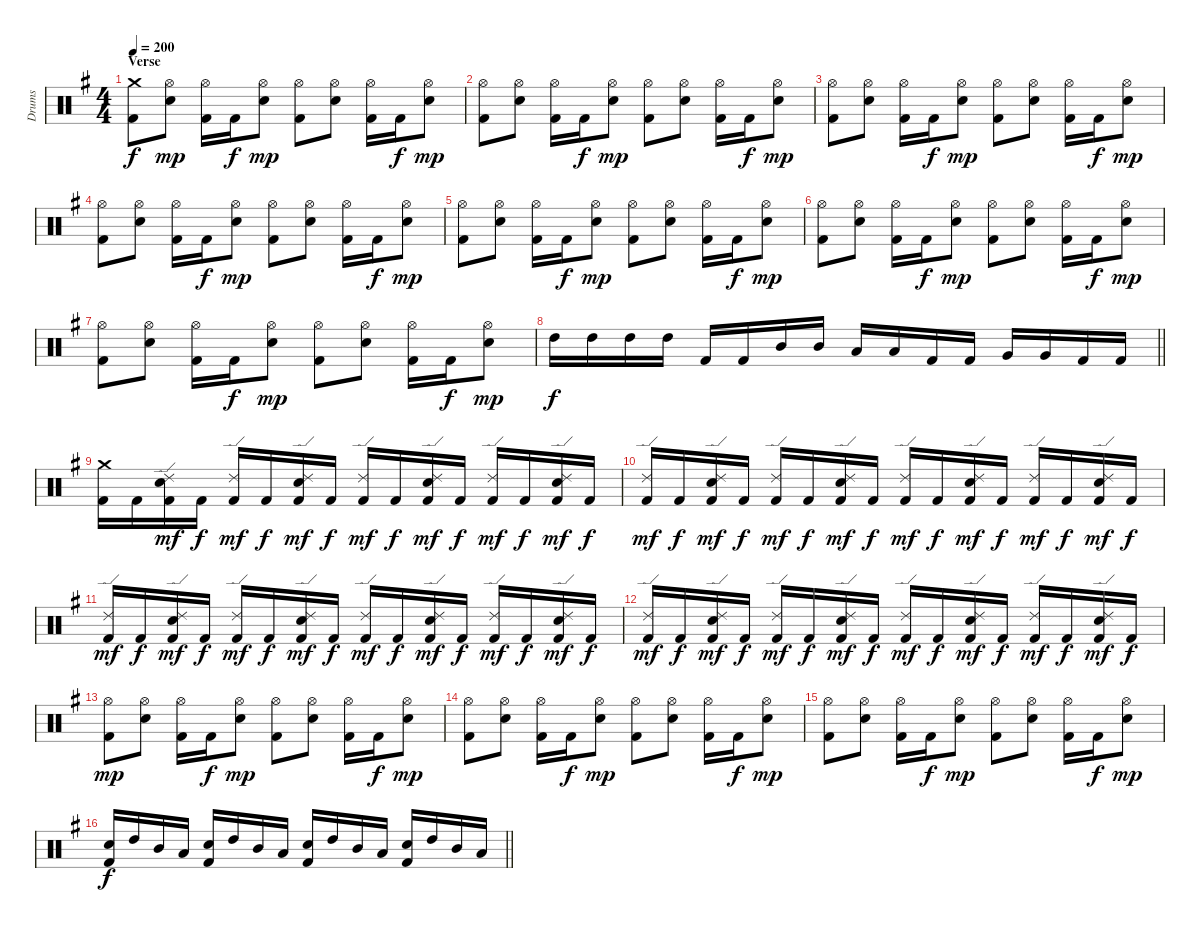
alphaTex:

\track ("Drums" "Drums") {instrument percussion}
\staff {score}
\articulation defaults
\ts (4 4)
\section ("" "Verse")
\tempo 200
\clef neutral
\ks g
("Crash medium (hit)" "Kick (hit) 2").8{dy f} ("Hi-Hat (open)" "Snare (hit) 2").8{dy mp} ("Hi-Hat (open)" "Kick (hit) 2").16 "Kick (hit) 2".16{dy f} ("Hi-Hat (open)" "Snare (hit) 2").8{dy mp} ("Hi-Hat (open)" "Kick (hit) 2").8 ("Hi-Hat (open)" "Snare (hit) 2").8 ("Hi-Hat (open)" "Kick (hit) 2").16 "Kick (hit) 2".16{dy f} ("Hi-Hat (open)" "Snare (hit) 2").8{dy mp} |
("Hi-Hat (open)" "Kick (hit) 2").8 ("Hi-Hat (open)" "Snare (hit) 2").8 ("Hi-Hat (open)" "Kick (hit) 2").16 "Kick (hit) 2".16{dy f} ("Hi-Hat (open)" "Snare (hit) 2").8{dy mp} ("Hi-Hat (open)" "Kick (hit) 2").8 ("Hi-Hat (open)" "Snare (hit) 2").8 ("Hi-Hat (open)" "Kick (hit) 2").16 "Kick (hit) 2".16{dy f} ("Hi-Hat (open)" "Snare (hit) 2").8{dy mp} |
("Hi-Hat (open)" "Kick (hit) 2").8 ("Hi-Hat (open)" "Snare (hit) 2").8 ("Hi-Hat (open)" "Kick (hit) 2").16 "Kick (hit) 2".16{dy f} ("Hi-Hat (open)" "Snare (hit) 2").8{dy mp} ("Hi-Hat (open)" "Kick (hit) 2").8 ("Hi-Hat (open)" "Snare (hit) 2").8 ("Hi-Hat (open)" "Kick (hit) 2").16 "Kick (hit) 2".16{dy f} ("Hi-Hat (open)" "Snare (hit) 2").8{dy mp} |
("Hi-Hat (open)" "Kick (hit) 2").8 ("Hi-Hat (open)" "Snare (hit) 2").8 ("Hi-Hat (open)" "Kick (hit) 2").16 "Kick (hit) 2".16{dy f} ("Hi-Hat (open)" "Snare (hit) 2").8{dy mp} ("Hi-Hat (open)" "Kick (hit) 2").8 ("Hi-Hat (open)" "Snare (hit) 2").8 ("Hi-Hat (open)" "Kick (hit) 2").16 "Kick (hit) 2".16{dy f} ("Hi-Hat (open)" "Snare (hit) 2").8{dy mp} |
("Hi-Hat (open)" "Kick (hit) 2").8 ("Hi-Hat (open)" "Snare (hit) 2").8 ("Hi-Hat (open)" "Kick (hit) 2").16 "Kick (hit) 2".16{dy f} ("Hi-Hat (open)" "Snare (hit) 2").8{dy mp} ("Hi-Hat (open)" "Kick (hit) 2").8 ("Hi-Hat (open)" "Snare (hit) 2").8 ("Hi-Hat (open)" "Kick (hit) 2").16 "Kick (hit) 2".16{dy f} ("Hi-Hat (open)" "Snare (hit) 2").8{dy mp} |
("Hi-Hat (open)" "Kick (hit) 2").8 ("Hi-Hat (open)" "Snare (hit) 2").8 ("Hi-Hat (open)" "Kick (hit) 2").16 "Kick (hit) 2".16{dy f} ("Hi-Hat (open)" "Snare (hit) 2").8{dy mp} ("Hi-Hat (open)" "Kick (hit) 2").8 ("Hi-Hat (open)" "Snare (hit) 2").8 ("Hi-Hat (open)" "Kick (hit) 2").16 "Kick (hit) 2".16{dy f} ("Hi-Hat (open)" "Snare (hit) 2").8{dy mp} |
("Hi-Hat (open)" "Kick (hit) 2").8 ("Hi-Hat (open)" "Snare (hit) 2").8 ("Hi-Hat (open)" "Kick (hit) 2").16 "Kick (hit) 2".16{dy f} ("Hi-Hat (open)" "Snare (hit) 2").8{dy mp} ("Hi-Hat (open)" "Kick (hit) 2").8 ("Hi-Hat (open)" "Snare (hit) 2").8 ("Hi-Hat (open)" "Kick (hit) 2").16 "Kick (hit) 2".16{dy f} ("Hi-Hat (open)" "Snare (hit) 2").8{dy mp} |
\barLineRight lightlight "High Tom (hit)".16{dy f} "High Tom (hit)".16 "High Tom (hit)".16 "High Tom (hit)".16 "Kick (hit) 2".16 "Kick (hit) 2".16 "Mid Tom (hit)".16 "Mid Tom (hit)".16 "Low Tom (hit)".16 "Low Tom (hit)".16 "Kick (hit) 2".16 "Kick (hit) 2".16 "Very Low Tom (hit)".16 "Very Low Tom (hit)".16 "Kick (hit) 2".16 "Kick (hit) 2".16
|
\section ("" "")
("Crash medium (hit)" "Kick (hit) 2").16 "Kick (hit) 2".16 ("Ride (edge) 2" "Snare (hit) 2" "Kick (hit) 2").16{dy mf} "Kick (hit) 2".16{dy f} ("Ride (edge) 2" "Kick (hit) 2").16{dy mf} "Kick (hit) 2".16{dy f} ("Ride (edge) 2" "Snare (hit) 2" "Kick (hit) 2").16{dy mf} "Kick (hit) 2".16{dy f} ("Ride (edge) 2" "Kick (hit) 2").16{dy mf} "Kick (hit) 2".16{dy f} ("Ride (edge) 2" "Snare (hit) 2" "Kick (hit) 2").16{dy mf} "Kick (hit) 2".16{dy f} ("Ride (edge) 2" "Kick (hit) 2").16{dy mf} "Kick (hit) 2".16{dy f} ("Ride (edge) 2" "Snare (hit) 2" "Kick (hit) 2").16{dy mf} "Kick (hit) 2".16{dy f} |
("Ride (edge) 2" "Kick (hit) 2").16{dy mf} "Kick (hit) 2".16{dy f} ("Ride (edge) 2" "Snare (hit) 2" "Kick (hit) 2").16{dy mf} "Kick (hit) 2".16{dy f} ("Ride (edge) 2" "Kick (hit) 2").16{dy mf} "Kick (hit) 2".16{dy f} ("Ride (edge) 2" "Snare (hit) 2" "Kick (hit) 2").16{dy mf} "Kick (hit) 2".16{dy f} ("Ride (edge) 2" "Kick (hit) 2").16{dy mf} "Kick (hit) 2".16{dy f} ("Ride (edge) 2" "Snare (hit) 2" "Kick (hit) 2").16{dy mf} "Kick (hit) 2".16{dy f} ("Ride (edge) 2" "Kick (hit) 2").16{dy mf} "Kick (hit) 2".16{dy f} ("Ride (edge) 2" "Snare (hit) 2" "Kick (hit) 2").16{dy mf} "Kick (hit) 2".16{dy f} |
("Ride (edge) 2" "Kick (hit) 2").16{dy mf} "Kick (hit) 2".16{dy f} ("Ride (edge) 2" "Snare (hit) 2" "Kick (hit) 2").16{dy mf} "Kick (hit) 2".16{dy f} ("Ride (edge) 2" "Kick (hit) 2").16{dy mf} "Kick (hit) 2".16{dy f} ("Ride (edge) 2" "Snare (hit) 2" "Kick (hit) 2").16{dy mf} "Kick (hit) 2".16{dy f} ("Ride (edge) 2" "Kick (hit) 2").16{dy mf} "Kick (hit) 2".16{dy f} ("Ride (edge) 2" "Snare (hit) 2" "Kick (hit) 2").16{dy mf} "Kick (hit) 2".16{dy f} ("Ride (edge) 2" "Kick (hit) 2").16{dy mf} "Kick (hit) 2".16{dy f} ("Ride (edge) 2" "Snare (hit) 2" "Kick (hit) 2").16{dy mf} "Kick (hit) 2".16{dy f} |
("Ride (edge) 2" "Kick (hit) 2").16{dy mf} "Kick (hit) 2".16{dy f} ("Ride (edge) 2" "Snare (hit) 2" "Kick (hit) 2").16{dy mf} "Kick (hit) 2".16{dy f} ("Ride (edge) 2" "Kick (hit) 2").16{dy mf} "Kick (hit) 2".16{dy f} ("Ride (edge) 2" "Snare (hit) 2" "Kick (hit) 2").16{dy mf} "Kick (hit) 2".16{dy f} ("Ride (edge) 2" "Kick (hit) 2").16{dy mf} "Kick (hit) 2".16{dy f} ("Ride (edge) 2" "Snare (hit) 2" "Kick (hit) 2").16{dy mf} "Kick (hit) 2".16{dy f} ("Ride (edge) 2" "Kick (hit) 2").16{dy mf} "Kick (hit) 2".16{dy f} ("Ride (edge) 2" "Snare (hit) 2" "Kick (hit) 2").16{dy mf} "Kick (hit) 2".16{dy f} |
("Hi-Hat (open)" "Kick (hit) 2").8{dy mp} ("Hi-Hat (open)" "Snare (hit) 2").8 ("Hi-Hat (open)" "Kick (hit) 2").16 "Kick (hit) 2".16{dy f} ("Hi-Hat (open)" "Snare (hit) 2").8{dy mp} ("Hi-Hat (open)" "Kick (hit) 2").8 ("Hi-Hat (open)" "Snare (hit) 2").8 ("Hi-Hat (open)" "Kick (hit) 2").16 "Kick (hit) 2".16{dy f} ("Hi-Hat (open)" "Snare (hit) 2").8{dy mp} |
("Hi-Hat (open)" "Kick (hit) 2").8 ("Hi-Hat (open)" "Snare (hit) 2").8 ("Hi-Hat (open)" "Kick (hit) 2").16 "Kick (hit) 2".16{dy f} ("Hi-Hat (open)" "Snare (hit) 2").8{dy mp} ("Hi-Hat (open)" "Kick (hit) 2").8 ("Hi-Hat (open)" "Snare (hit) 2").8 ("Hi-Hat (open)" "Kick (hit) 2").16 "Kick (hit) 2".16{dy f} ("Hi-Hat (open)" "Snare (hit) 2").8{dy mp} |
("Hi-Hat (open)" "Kick (hit) 2").8 ("Hi-Hat (open)" "Snare (hit) 2").8 ("Hi-Hat (open)" "Kick (hit) 2").16 "Kick (hit) 2".16{dy f} ("Hi-Hat (open)" "Snare (hit) 2").8{dy mp} ("Hi-Hat (open)" "Kick (hit) 2").8 ("Hi-Hat (open)" "Snare (hit) 2").8 ("Hi-Hat (open)" "Kick (hit) 2").16 "Kick (hit) 2".16{dy f} ("Hi-Hat (open)" "Snare (hit) 2").8{dy mp} |
\barLineRight lightlight
("Snare (hit) 2" "Kick (hit) 2").16{dy f} "High Tom (hit)".16 "Mid Tom (hit)".16 "Low Tom (hit)".16 ("Snare (hit) 2" "Kick (hit) 2").16 "High Tom (hit)".16 "Mid Tom (hit)".16 "Low Tom (hit)".16 ("Snare (hit) 2" "Kick (hit) 2").16 "High Tom (hit)".16 "Mid Tom (hit)".16 "Low Tom (hit)".16 ("Snare (hit) 2" "Kick (hit) 2").16 "High Tom (hit)".16 "Mid Tom (hit)".16 "Low Tom (hit)".16
